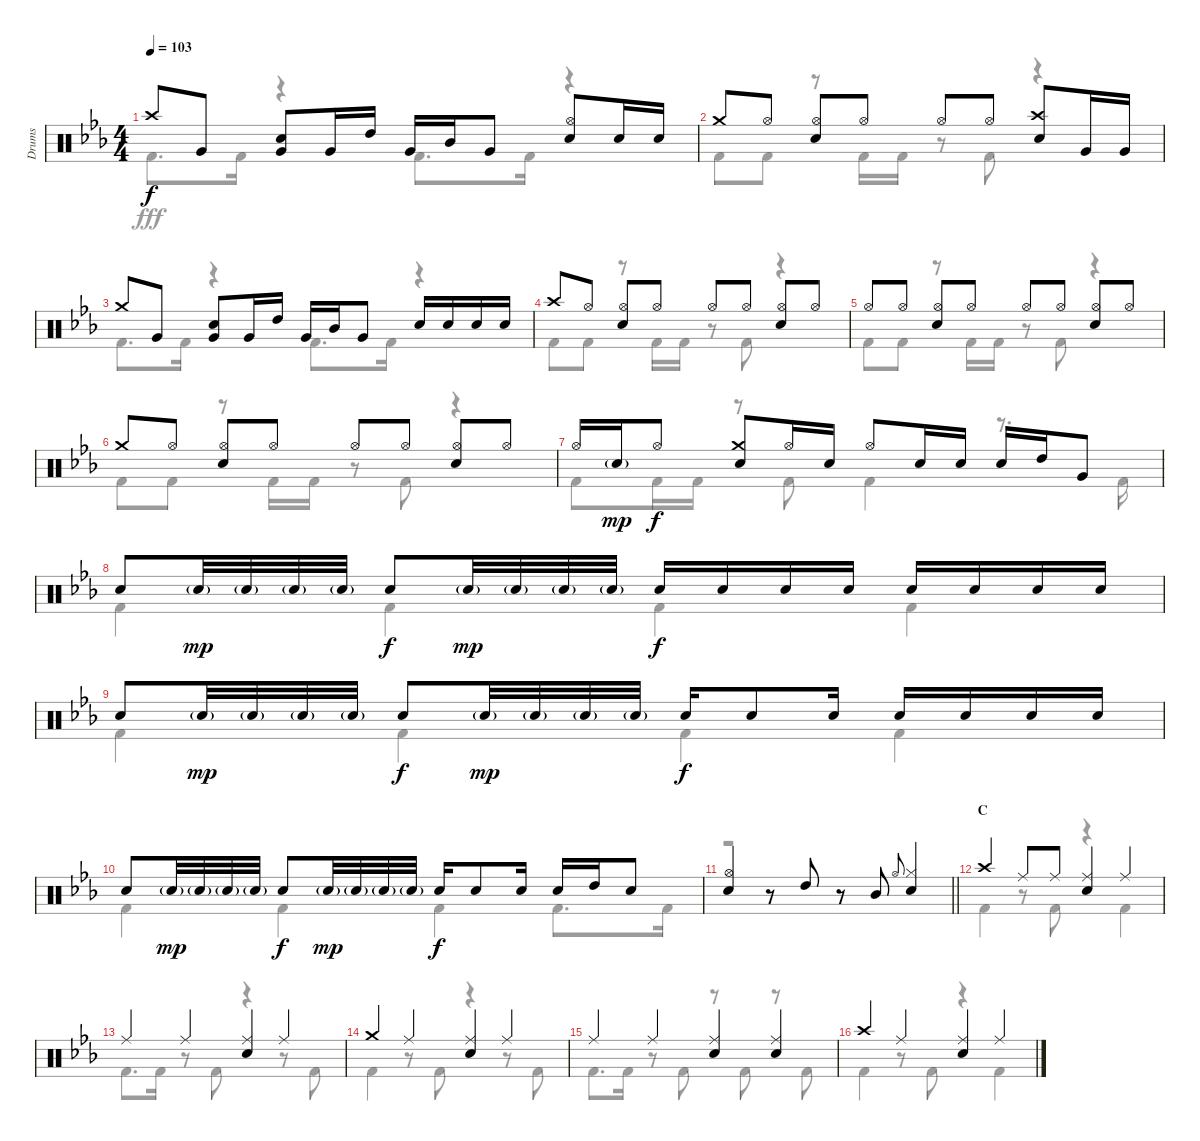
\track ("Drums" "Drums") {instrument percussion}
\staff {score}
\articulation defaults
\voice
\ts (4 4)
\tempo 103
\clef neutral
\ks eb "Crash high (hit)".8{dy f} "Very Low Tom (hit)".8
("Snare (hit) 2" "Very Low Tom (hit)").8 "Very Low Tom (hit)".16 "High Tom (hit)".16 "Very Low Tom (hit)".16 "Mid Tom (hit)".16 "Very Low Tom (hit)".8 ("Hi-Hat (open)" "Snare (hit) 2").8 "Snare (hit) 2".16 "Snare (hit) 2".16 |
"Crash medium (hit)".8 "Hi-Hat (open)".8 ("Hi-Hat (open)" "Snare (hit) 2").8 "Hi-Hat (open)".8 "Hi-Hat (open)".8 "Hi-Hat (open)".8 ("Crash high (hit)" "Snare (hit) 2").8 "Very Low Tom (hit)".16 "Very Low Tom (hit)".16 |
"Crash medium (hit)".8 "Very Low Tom (hit)".8 ("Snare (hit) 2" "Very Low Tom (hit)").8 "Very Low Tom (hit)".16 "High Tom (hit)".16 "Very Low Tom (hit)".16 "Mid Tom (hit)".16 "Very Low Tom (hit)".8 "Snare (hit) 2".16 "Snare (hit) 2".16 "Snare (hit) 2".16 "Snare (hit) 2".16 |
"Crash high (hit)".8 "Hi-Hat (open)".8 ("Hi-Hat (open)" "Snare (hit) 2").8 "Hi-Hat (open)".8 "Hi-Hat (open)".8 "Hi-Hat (open)".8 ("Hi-Hat (open)" "Snare (hit) 2").8 "Hi-Hat (open)".8 |
"Hi-Hat (open)".8 "Hi-Hat (open)".8 ("Hi-Hat (open)" "Snare (hit) 2").8 "Hi-Hat (open)".8 "Hi-Hat (open)".8 "Hi-Hat (open)".8 ("Hi-Hat (open)" "Snare (hit) 2").8 "Hi-Hat (open)".8 |
"Crash medium (hit)".8 "Hi-Hat (open)".8 ("Hi-Hat (open)" "Snare (hit) 2").8 "Hi-Hat (open)".8 "Hi-Hat (open)".8 "Hi-Hat (open)".8 ("Hi-Hat (open)" "Snare (hit) 2").8 "Hi-Hat (open)".8 |
"Hi-Hat (open)".16 "Snare (hit) 2"{g}.16{dy mp} "Hi-Hat (open)".8{dy f} ("Crash medium (hit)" "Snare (hit) 2").8 "Hi-Hat (open)".16 "Snare (hit) 2".16 "Hi-Hat (open)".8 "Snare (hit) 2".16 "Snare (hit) 2".16 "Snare (hit) 2".16 "High Tom (hit)".16 "Very Low Tom (hit)".8 |
"Snare (hit) 2".8 "Snare (hit) 2"{g}.32{dy mp} "Snare (hit) 2"{g}.32 "Snare (hit) 2"{g}.32 "Snare (hit) 2"{g}.32 "Snare (hit) 2".8{dy f} "Snare (hit) 2"{g}.32{dy mp} "Snare (hit) 2"{g}.32 "Snare (hit) 2"{g}.32 "Snare (hit) 2"{g}.32 "Snare (hit) 2".16{dy f} "Snare (hit) 2".16 "Snare (hit) 2".16 "Snare (hit) 2".16 "Snare (hit) 2".16 "Snare (hit) 2".16 "Snare (hit) 2".16 "Snare (hit) 2".16 |
"Snare (hit) 2".8 "Snare (hit) 2"{g}.32{dy mp} "Snare (hit) 2"{g}.32 "Snare (hit) 2"{g}.32 "Snare (hit) 2"{g}.32 "Snare (hit) 2".8{dy f} "Snare (hit) 2"{g}.32{dy mp} "Snare (hit) 2"{g}.32 "Snare (hit) 2"{g}.32 "Snare (hit) 2"{g}.32 "Snare (hit) 2".16{dy f} "Snare (hit) 2".8 "Snare (hit) 2".16 "Snare (hit) 2".16 "Snare (hit) 2".16 "Snare (hit) 2".16 "Snare (hit) 2".16 |
"Snare (hit) 2".8 "Snare (hit) 2"{g}.32{dy mp} "Snare (hit) 2"{g}.32 "Snare (hit) 2"{g}.32 "Snare (hit) 2"{g}.32 "Snare (hit) 2".8{dy f} "Snare (hit) 2"{g}.32{dy mp} "Snare (hit) 2"{g}.32 "Snare (hit) 2"{g}.32 "Snare (hit) 2"{g}.32 "Snare (hit) 2".16{dy f} "Snare (hit) 2".8 "Snare (hit) 2".16 "Snare (hit) 2".16 "High Tom (hit)".16 "Snare (hit) 2".8 |
\barLineRight lightlight
("Hi-Hat (open)" "Snare (hit) 2").4 r.8 "High Tom (hit)".8 r.8 "Mid Tom (hit)".8 "Hi-Hat (open)".8{gr onbeat} ("Hi-Hat (closed)" "Snare (hit) 2").4 |
\section ("" "C")
"Crash high (hit)".4 "Ride (middle)".8 "Ride (middle)".8 ("Ride (middle)" "Snare (hit) 2").4 "Ride (middle)".4 |
"Ride (middle)".4 "Ride (middle)".4 ("Ride (middle)" "Snare (hit) 2").4 "Ride (middle)".4 |
"Crash medium (hit)".4 "Ride (middle)".4 ("Ride (middle)" "Snare (hit) 2").4 "Ride (middle)".4 |
"Ride (middle)".4 "Ride (middle)".4 ("Ride (middle)" "Snare (hit) 2").4 ("Ride (middle)" "Snare (hit) 2").4 |
"Crash high (hit)".4 "Ride (middle)".4 ("Ride (middle)" "Snare (hit) 2").4 "Ride (middle)".4
\voice
\clef neutral
\ottava regular
\simile none
\ks eb "Kick (hit) 2".8{d dy fff} "Kick (hit) 2".16
r.4 "Kick (hit) 2".8{d} "Kick (hit) 2".16 r.4 |
"Kick (hit) 2".8 "Kick (hit) 2".8 r.8 "Kick (hit) 2".16 "Kick (hit) 2".16 r.8 "Kick (hit) 2".8 r.4 |
"Kick (hit) 2".8{d} "Kick (hit) 2".16 r.4 "Kick (hit) 2".8{d} "Kick (hit) 2".16 r.4 |
"Kick (hit) 2".8 "Kick (hit) 2".8 r.8 "Kick (hit) 2".16 "Kick (hit) 2".16 r.8 "Kick (hit) 2".8 r.4 |
"Kick (hit) 2".8 "Kick (hit) 2".8 r.8 "Kick (hit) 2".16 "Kick (hit) 2".16 r.8 "Kick (hit) 2".8 r.4 |
"Kick (hit) 2".8 "Kick (hit) 2".8 r.8 "Kick (hit) 2".16 "Kick (hit) 2".16 r.8 "Kick (hit) 2".8 r.4 |
"Kick (hit) 2".8 "Kick (hit) 2".16 "Kick (hit) 2".16 r.8 "Kick (hit) 2".8 "Kick (hit) 2".4 r.8{d} "Kick (hit) 2".16 |
"Kick (hit) 2".4 "Kick (hit) 2".4 "Kick (hit) 2".4 "Kick (hit) 2".4 |
"Kick (hit) 2".4 "Kick (hit) 2".4 "Kick (hit) 2".4 "Kick (hit) 2".4 |
"Kick (hit) 2".4 "Kick (hit) 2".4 "Kick (hit) 2".4 "Kick (hit) 2".8{d} "Kick (hit) 2".16 |
\barLineRight lightlight
r.1 |
"Kick (hit) 2".4 r.8 "Kick (hit) 2".8 r.4 "Kick (hit) 2".4 |
"Kick (hit) 2".8{d} "Kick (hit) 2".16 r.8 "Kick (hit) 2".8 r.4 r.8 "Kick (hit) 2".8 |
"Kick (hit) 2".4 r.8 "Kick (hit) 2".8 r.4 r.8 "Kick (hit) 2".8 |
"Kick (hit) 2".8{d} "Kick (hit) 2".16 r.8 "Kick (hit) 2".8 r.8 "Kick (hit) 2".8 r.8 "Kick (hit) 2".8 |
"Kick (hit) 2".4 r.8 "Kick (hit) 2".8 r.4 "Kick (hit) 2".4
